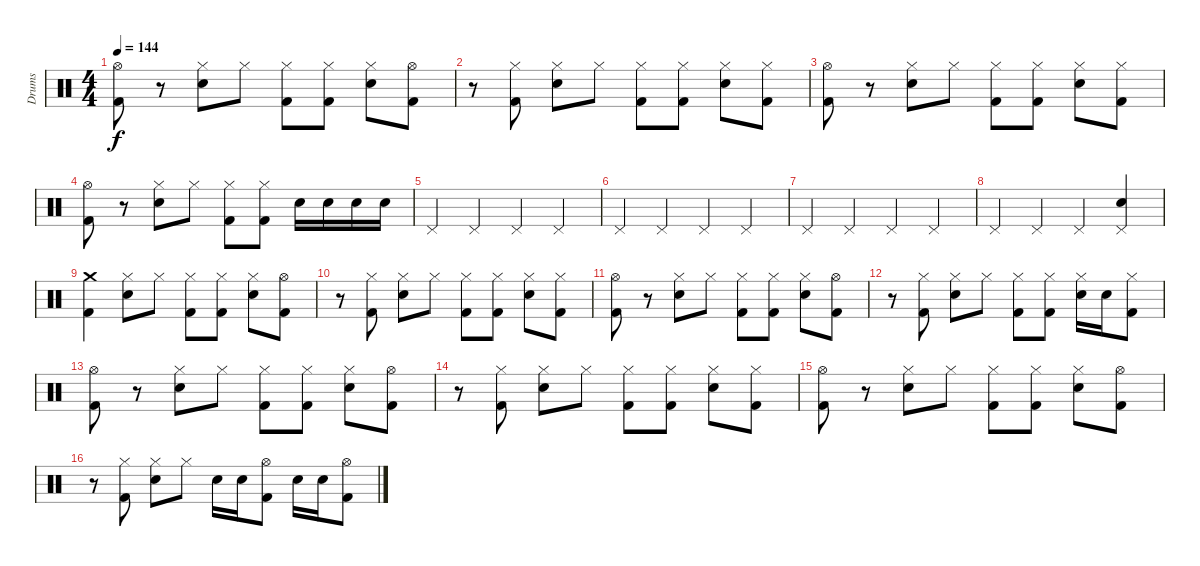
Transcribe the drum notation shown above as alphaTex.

\track ("Drums" "Drums") {instrument percussion}
\staff {score}
\articulation defaults
\ts (4 4)
\tempo 144
\clef neutral
\ks c
("Hi-Hat (open)" "Kick (hit) 2").8{dy f} r.8 ("Hi-Hat (closed)" "Snare (hit) 2").8 "Hi-Hat (closed)".8 ("Hi-Hat (closed)" "Kick (hit) 2").8 ("Hi-Hat (closed)" "Kick (hit) 2").8 ("Hi-Hat (closed)" "Snare (hit) 2").8 ("Hi-Hat (open)" "Kick (hit) 2").8 |
r.8 ("Hi-Hat (closed)" "Kick (hit) 2").8 ("Hi-Hat (closed)" "Snare (hit) 2").8 "Hi-Hat (closed)".8 ("Hi-Hat (closed)" "Kick (hit) 2").8 ("Hi-Hat (closed)" "Kick (hit) 2").8 ("Hi-Hat (closed)" "Snare (hit) 2").8 ("Hi-Hat (closed)" "Kick (hit) 2").8 |
("Hi-Hat (open)" "Kick (hit) 2").8 r.8 ("Hi-Hat (closed)" "Snare (hit) 2").8 "Hi-Hat (closed)".8 ("Hi-Hat (closed)" "Kick (hit) 2").8 ("Hi-Hat (closed)" "Kick (hit) 2").8 ("Hi-Hat (closed)" "Snare (hit) 2").8 ("Hi-Hat (closed)" "Kick (hit) 2").8 |
("Hi-Hat (open)" "Kick (hit) 2").8 r.8 ("Hi-Hat (closed)" "Snare (hit) 2").8 "Hi-Hat (closed)".8 ("Hi-Hat (closed)" "Kick (hit) 2").8 ("Hi-Hat (closed)" "Kick (hit) 2").8 "Snare (hit) 2".16 "Snare (hit) 2".16 "Snare (hit) 2".16 "Snare (hit) 2".16 |
"Pedal Hi-Hat (hit)".4 "Pedal Hi-Hat (hit)".4 "Pedal Hi-Hat (hit)".4 "Pedal Hi-Hat (hit)".4 |
"Pedal Hi-Hat (hit)".4 "Pedal Hi-Hat (hit)".4 "Pedal Hi-Hat (hit)".4 "Pedal Hi-Hat (hit)".4 |
"Pedal Hi-Hat (hit)".4 "Pedal Hi-Hat (hit)".4 "Pedal Hi-Hat (hit)".4 "Pedal Hi-Hat (hit)".4 |
"Pedal Hi-Hat (hit)".4 "Pedal Hi-Hat (hit)".4 "Pedal Hi-Hat (hit)".4 ("Pedal Hi-Hat (hit)" "Snare (hit) 2").4 |
("Crash medium (hit)" "Kick (hit) 2").4 ("Hi-Hat (closed)" "Snare (hit) 2").8 "Hi-Hat (closed)".8 ("Hi-Hat (closed)" "Kick (hit) 2").8 ("Hi-Hat (closed)" "Kick (hit) 2").8 ("Hi-Hat (closed)" "Snare (hit) 2").8 ("Hi-Hat (open)" "Kick (hit) 2").8 |
r.8 ("Hi-Hat (closed)" "Kick (hit) 2").8 ("Hi-Hat (closed)" "Snare (hit) 2").8 "Hi-Hat (closed)".8 ("Hi-Hat (closed)" "Kick (hit) 2").8 ("Hi-Hat (closed)" "Kick (hit) 2").8 ("Hi-Hat (closed)" "Snare (hit) 2").8 ("Hi-Hat (closed)" "Kick (hit) 2").8 |
("Hi-Hat (open)" "Kick (hit) 2").8 r.8 ("Hi-Hat (closed)" "Snare (hit) 2").8 "Hi-Hat (closed)".8 ("Hi-Hat (closed)" "Kick (hit) 2").8 ("Hi-Hat (closed)" "Kick (hit) 2").8 ("Hi-Hat (closed)" "Snare (hit) 2").8 ("Hi-Hat (open)" "Kick (hit) 2").8 |
r.8 ("Hi-Hat (closed)" "Kick (hit) 2").8 ("Hi-Hat (closed)" "Snare (hit) 2").8 "Hi-Hat (closed)".8 ("Hi-Hat (closed)" "Kick (hit) 2").8 ("Hi-Hat (closed)" "Kick (hit) 2").8 ("Hi-Hat (closed)" "Snare (hit) 2").16 "Snare (hit) 2".16 ("Hi-Hat (closed)" "Kick (hit) 2").8 |
("Hi-Hat (open)" "Kick (hit) 2").8 r.8 ("Hi-Hat (closed)" "Snare (hit) 2").8 "Hi-Hat (closed)".8 ("Hi-Hat (closed)" "Kick (hit) 2").8 ("Hi-Hat (closed)" "Kick (hit) 2").8 ("Hi-Hat (closed)" "Snare (hit) 2").8 ("Hi-Hat (open)" "Kick (hit) 2").8 |
r.8 ("Hi-Hat (closed)" "Kick (hit) 2").8 ("Hi-Hat (closed)" "Snare (hit) 2").8 "Hi-Hat (closed)".8 ("Hi-Hat (closed)" "Kick (hit) 2").8 ("Hi-Hat (closed)" "Kick (hit) 2").8 ("Hi-Hat (closed)" "Snare (hit) 2").8 ("Hi-Hat (closed)" "Kick (hit) 2").8 |
("Hi-Hat (open)" "Kick (hit) 2").8 r.8 ("Hi-Hat (closed)" "Snare (hit) 2").8 "Hi-Hat (closed)".8 ("Hi-Hat (closed)" "Kick (hit) 2").8 ("Hi-Hat (closed)" "Kick (hit) 2").8 ("Hi-Hat (closed)" "Snare (hit) 2").8 ("Hi-Hat (open)" "Kick (hit) 2").8 |
r.8 ("Hi-Hat (closed)" "Kick (hit) 2").8 ("Hi-Hat (closed)" "Snare (hit) 2").8 "Hi-Hat (closed)".8 "Snare (hit) 2".16 "Snare (hit) 2".16 ("Hi-Hat (open)" "Kick (hit) 2").8 "Snare (hit) 2".16 "Snare (hit) 2".16 ("Hi-Hat (open)" "Kick (hit) 2").8
